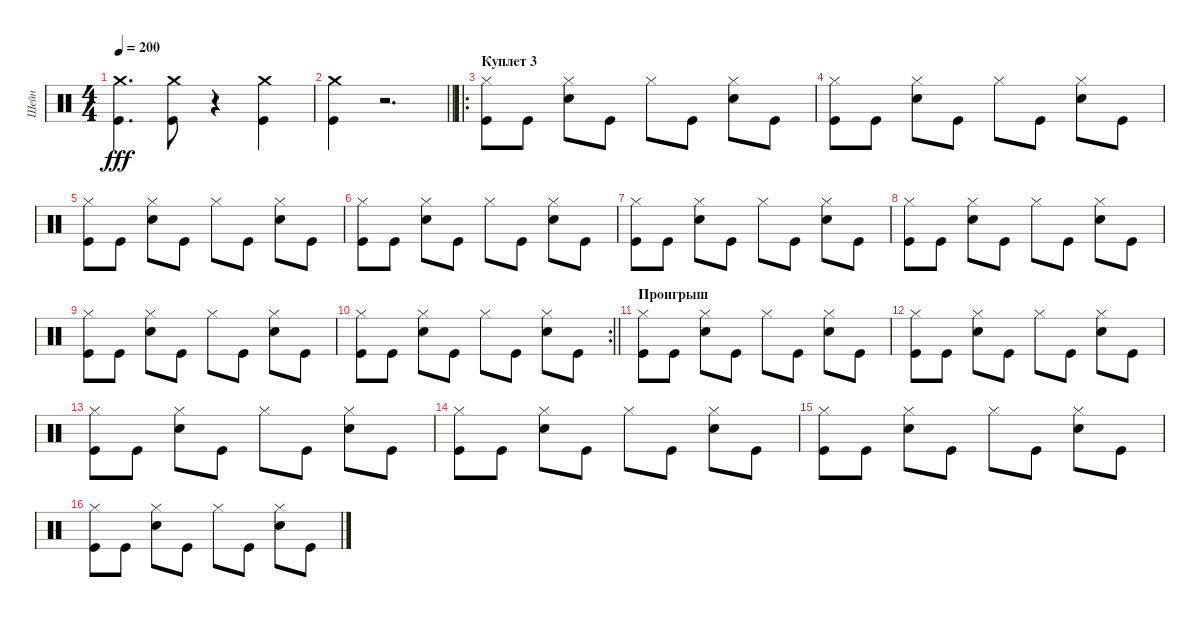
\track ("Шейн" "Шейн") {instrument percussion}
\staff {score}
\articulation defaults
\ts (4 4)
\tempo 200
\clef neutral
\ks c
("Kick (hit)" "Crash medium (hit)").4{d dy fff} ("Kick (hit)" "Crash medium (hit)").8 r.4 ("Crash medium (hit)" "Kick (hit)").4 |
\barLineRight lightlight
("Kick (hit)" "Crash medium (hit)").4 r.2{d} |
\ro
\section ("" "Куплет 3")
("Kick (hit)" "Hi-Hat (closed)").8 "Kick (hit)".8 ("Snare (hit) 2" "Hi-Hat (closed)").8 "Kick (hit)".8 "Hi-Hat (closed)".8 "Kick (hit)".8 ("Snare (hit) 2" "Hi-Hat (closed)").8 "Kick (hit)".8 |
("Kick (hit)" "Hi-Hat (closed)").8 "Kick (hit)".8 ("Snare (hit) 2" "Hi-Hat (closed)").8 "Kick (hit)".8 "Hi-Hat (closed)".8 "Kick (hit)".8 ("Snare (hit) 2" "Hi-Hat (closed)").8 "Kick (hit)".8 |
("Kick (hit)" "Hi-Hat (closed)").8 "Kick (hit)".8 ("Snare (hit) 2" "Hi-Hat (closed)").8 "Kick (hit)".8 "Hi-Hat (closed)".8 "Kick (hit)".8 ("Snare (hit) 2" "Hi-Hat (closed)").8 "Kick (hit)".8 |
("Kick (hit)" "Hi-Hat (closed)").8 "Kick (hit)".8 ("Snare (hit) 2" "Hi-Hat (closed)").8 "Kick (hit)".8 "Hi-Hat (closed)".8 "Kick (hit)".8 ("Snare (hit) 2" "Hi-Hat (closed)").8 "Kick (hit)".8 |
("Kick (hit)" "Hi-Hat (closed)").8 "Kick (hit)".8 ("Snare (hit) 2" "Hi-Hat (closed)").8 "Kick (hit)".8 "Hi-Hat (closed)".8 "Kick (hit)".8 ("Snare (hit) 2" "Hi-Hat (closed)").8 "Kick (hit)".8 |
("Kick (hit)" "Hi-Hat (closed)").8 "Kick (hit)".8 ("Snare (hit) 2" "Hi-Hat (closed)").8 "Kick (hit)".8 "Hi-Hat (closed)".8 "Kick (hit)".8 ("Snare (hit) 2" "Hi-Hat (closed)").8 "Kick (hit)".8 |
("Kick (hit)" "Hi-Hat (closed)").8 "Kick (hit)".8 ("Snare (hit) 2" "Hi-Hat (closed)").8 "Kick (hit)".8 "Hi-Hat (closed)".8 "Kick (hit)".8 ("Snare (hit) 2" "Hi-Hat (closed)").8 "Kick (hit)".8 |
\rc 2
\barLineRight lightlight
("Kick (hit)" "Hi-Hat (closed)").8 "Kick (hit)".8 ("Snare (hit) 2" "Hi-Hat (closed)").8 "Kick (hit)".8 "Hi-Hat (closed)".8 "Kick (hit)".8 ("Snare (hit) 2" "Hi-Hat (closed)").8 "Kick (hit)".8 |
\section ("" "Проигрыш")
("Kick (hit)" "Hi-Hat (closed)").8 "Kick (hit)".8 ("Snare (hit) 2" "Hi-Hat (closed)").8 "Kick (hit)".8 "Hi-Hat (closed)".8 "Kick (hit)".8 ("Snare (hit) 2" "Hi-Hat (closed)").8 "Kick (hit)".8 |
("Kick (hit)" "Hi-Hat (closed)").8 "Kick (hit)".8 ("Snare (hit) 2" "Hi-Hat (closed)").8 "Kick (hit)".8 "Hi-Hat (closed)".8 "Kick (hit)".8 ("Snare (hit) 2" "Hi-Hat (closed)").8 "Kick (hit)".8 |
("Kick (hit)" "Hi-Hat (closed)").8 "Kick (hit)".8 ("Snare (hit) 2" "Hi-Hat (closed)").8 "Kick (hit)".8 "Hi-Hat (closed)".8 "Kick (hit)".8 ("Snare (hit) 2" "Hi-Hat (closed)").8 "Kick (hit)".8 |
("Kick (hit)" "Hi-Hat (closed)").8 "Kick (hit)".8 ("Snare (hit) 2" "Hi-Hat (closed)").8 "Kick (hit)".8 "Hi-Hat (closed)".8 "Kick (hit)".8 ("Snare (hit) 2" "Hi-Hat (closed)").8 "Kick (hit)".8 |
("Kick (hit)" "Hi-Hat (closed)").8 "Kick (hit)".8 ("Snare (hit) 2" "Hi-Hat (closed)").8 "Kick (hit)".8 "Hi-Hat (closed)".8 "Kick (hit)".8 ("Snare (hit) 2" "Hi-Hat (closed)").8 "Kick (hit)".8 |
("Kick (hit)" "Hi-Hat (closed)").8 "Kick (hit)".8 ("Snare (hit) 2" "Hi-Hat (closed)").8 "Kick (hit)".8 "Hi-Hat (closed)".8 "Kick (hit)".8 ("Snare (hit) 2" "Hi-Hat (closed)").8 "Kick (hit)".8
